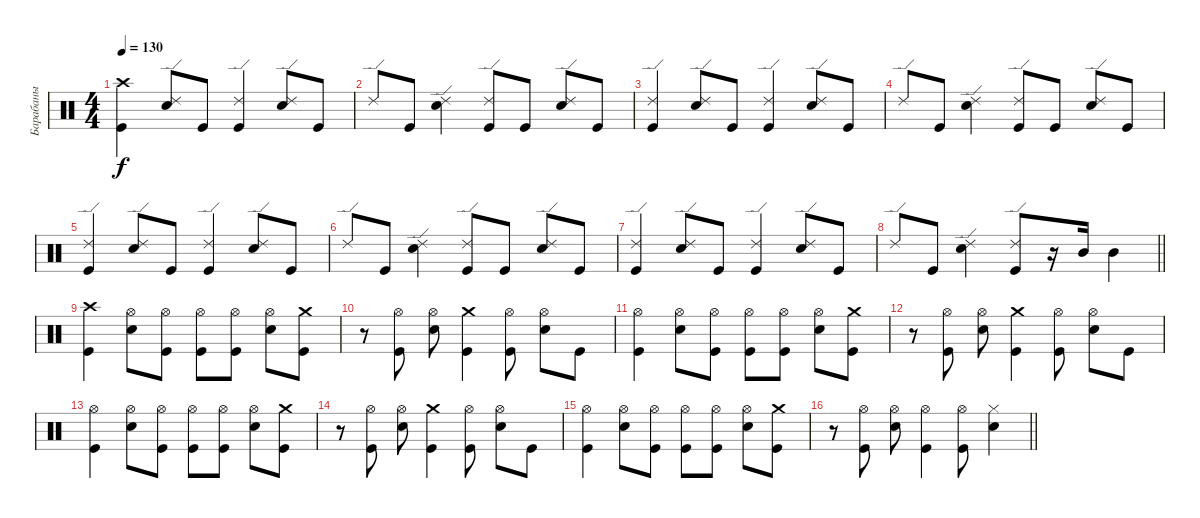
\track ("Барабаны" "Барабаны") {instrument percussion}
\staff {score}
\articulation defaults
\ts (4 4)
\tempo 130
\clef neutral
\ks c
("Crash high (hit)" "Kick (hit)").4{dy f} ("Ride (edge) 2" "Electric Snare (hit)").8 "Kick (hit)".8 ("Ride (edge) 2" "Kick (hit)").4 ("Ride (edge) 2" "Electric Snare (hit)").8 "Kick (hit)".8 |
"Ride (edge) 2".8 "Kick (hit)".8 ("Ride (edge) 2" "Electric Snare (hit)").4 ("Ride (edge) 2" "Kick (hit)").8 "Kick (hit)".8 ("Ride (edge) 2" "Electric Snare (hit)").8 "Kick (hit)".8 |
("Ride (edge) 2" "Kick (hit)").4 ("Ride (edge) 2" "Electric Snare (hit)").8 "Kick (hit)".8 ("Ride (edge) 2" "Kick (hit)").4 ("Ride (edge) 2" "Electric Snare (hit)").8 "Kick (hit)".8 |
"Ride (edge) 2".8 "Kick (hit)".8 ("Ride (edge) 2" "Electric Snare (hit)").4 ("Ride (edge) 2" "Kick (hit)").8 "Kick (hit)".8 ("Ride (edge) 2" "Electric Snare (hit)").8 "Kick (hit)".8 |
("Ride (edge) 2" "Kick (hit)").4 ("Ride (edge) 2" "Electric Snare (hit)").8 "Kick (hit)".8 ("Ride (edge) 2" "Kick (hit)").4 ("Ride (edge) 2" "Electric Snare (hit)").8 "Kick (hit)".8 |
"Ride (edge) 2".8 "Kick (hit)".8 ("Ride (edge) 2" "Electric Snare (hit)").4 ("Ride (edge) 2" "Kick (hit)").8 "Kick (hit)".8 ("Ride (edge) 2" "Electric Snare (hit)").8 "Kick (hit)".8 |
("Ride (edge) 2" "Kick (hit)").4 ("Ride (edge) 2" "Electric Snare (hit)").8 "Kick (hit)".8 ("Ride (edge) 2" "Kick (hit)").4 ("Ride (edge) 2" "Electric Snare (hit)").8 "Kick (hit)".8 |
\barLineRight lightlight "Ride (edge) 2".8 "Kick (hit)".8
("Ride (edge) 2" "Electric Snare (hit)").4 ("Ride (edge) 2" "Kick (hit)").8 r.16 "Mid Tom (hit)".16 "Mid Tom (hit)".4 |
("Crash high (hit)" "Kick (hit)").4 ("Hi-Hat (open)" "Electric Snare (hit)").8 ("Hi-Hat (open)" "Kick (hit)").8 ("Hi-Hat (open)" "Kick (hit)").8 ("Hi-Hat (open)" "Kick (hit)").8 ("Hi-Hat (open)" "Electric Snare (hit)").8 ("Crash medium (hit)" "Kick (hit)").8 |
r.8 ("Hi-Hat (open)" "Kick (hit)").8 ("Hi-Hat (open)" "Electric Snare (hit)").8 ("Crash medium (hit)" "Kick (hit)").4 ("Hi-Hat (open)" "Kick (hit)").8 ("Hi-Hat (open)" "Electric Snare (hit)").8 "Kick (hit)".8 |
("Hi-Hat (open)" "Kick (hit)").4 ("Hi-Hat (open)" "Electric Snare (hit)").8 ("Hi-Hat (open)" "Kick (hit)").8 ("Hi-Hat (open)" "Kick (hit)").8 ("Hi-Hat (open)" "Kick (hit)").8 ("Hi-Hat (open)" "Electric Snare (hit)").8 ("Crash medium (hit)" "Kick (hit)").8 |
r.8 ("Hi-Hat (open)" "Kick (hit)").8 ("Hi-Hat (open)" "Electric Snare (hit)").8 ("Crash medium (hit)" "Kick (hit)").4 ("Hi-Hat (open)" "Kick (hit)").8 ("Hi-Hat (open)" "Electric Snare (hit)").8 "Kick (hit)".8 |
("Hi-Hat (open)" "Kick (hit)").4 ("Hi-Hat (open)" "Electric Snare (hit)").8 ("Hi-Hat (open)" "Kick (hit)").8 ("Hi-Hat (open)" "Kick (hit)").8 ("Hi-Hat (open)" "Kick (hit)").8 ("Hi-Hat (open)" "Electric Snare (hit)").8 ("Crash medium (hit)" "Kick (hit)").8 |
r.8 ("Hi-Hat (open)" "Kick (hit)").8 ("Hi-Hat (open)" "Electric Snare (hit)").8 ("Crash medium (hit)" "Kick (hit)").4 ("Hi-Hat (open)" "Kick (hit)").8 ("Hi-Hat (open)" "Electric Snare (hit)").8 "Kick (hit)".8 |
("Hi-Hat (open)" "Kick (hit)").4 ("Hi-Hat (open)" "Electric Snare (hit)").8 ("Hi-Hat (open)" "Kick (hit)").8 ("Hi-Hat (open)" "Kick (hit)").8 ("Hi-Hat (open)" "Kick (hit)").8 ("Hi-Hat (open)" "Electric Snare (hit)").8 ("Crash medium (hit)" "Kick (hit)").8 |
\barLineRight lightlight
r.8 ("Hi-Hat (open)" "Kick (hit)").8 ("Hi-Hat (open)" "Electric Snare (hit)").8 ("Hi-Hat (open)" "Kick (hit)").4 ("Hi-Hat (open)" "Kick (hit)").8 ("Hi-Hat (closed)" "Electric Snare (hit)").4
